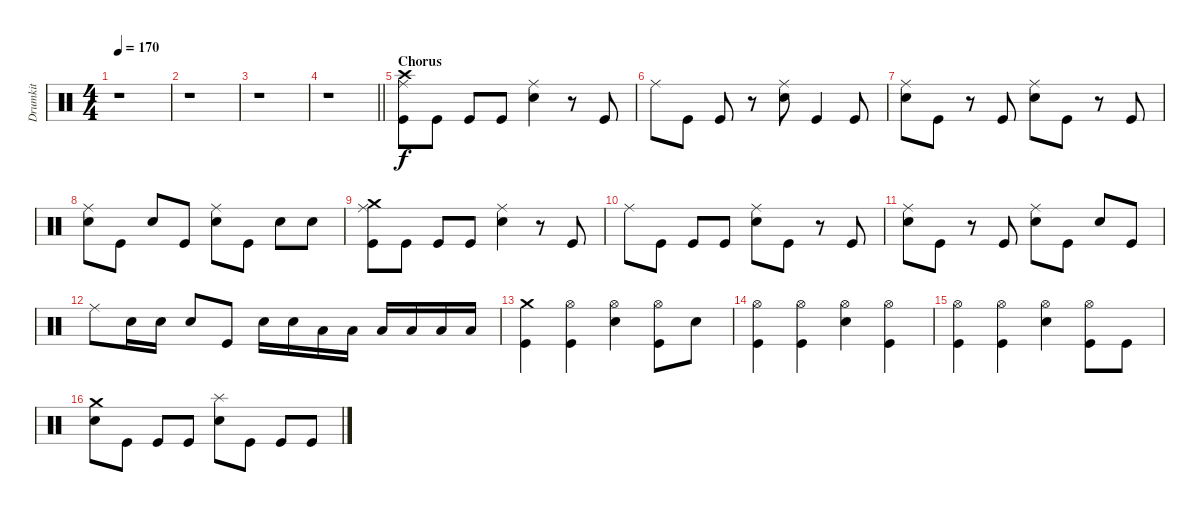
\track ("Drumkit" "Drumkit") {instrument percussion}
\staff {score}
\articulation defaults
\ts (4 4)
\tempo 170
\clef neutral
\ks c
r.1{dy f} |
r.1 |
r.1 |
\barLineRight lightlight
r.1 |
\section ("" "Chorus")
("Ride (middle)" "Crash high (hit)" "Kick (hit)").8 "Kick (hit)".8 "Kick (hit)".8 "Kick (hit)".8 ("Ride (middle)" "Snare (hit) 2").4 r.8 "Kick (hit)".8 |
"Ride (middle)".8 "Kick (hit)".8 "Kick (hit)".8 r.8 ("Ride (middle)" "Snare (hit) 2").8 "Kick (hit)".4 "Kick (hit)".8 |
("Ride (middle)" "Snare (hit) 2").8 "Kick (hit)".8 r.8 "Kick (hit)".8 ("Ride (middle)" "Snare (hit) 2").8 "Kick (hit)".8 r.8 "Kick (hit)".8 |
("Ride (middle)" "Snare (hit) 2").8 "Kick (hit)".8 "Snare (hit) 2".8 "Kick (hit)".8 ("Ride (middle)" "Snare (hit) 2").8 "Kick (hit)".8 "Snare (hit) 2".8 "Snare (hit) 2".8 |
("Ride (middle)" "Crash medium (hit)" "Kick (hit)").8 "Kick (hit)".8 "Kick (hit)".8 "Kick (hit)".8 ("Ride (middle)" "Snare (hit) 2").4 r.8 "Kick (hit)".8 |
"Ride (middle)".8 "Kick (hit)".8 "Kick (hit)".8 "Kick (hit)".8 ("Ride (middle)" "Snare (hit) 2").8 "Kick (hit)".8 r.8 "Kick (hit)".8 |
("Ride (middle)" "Snare (hit) 2").8 "Kick (hit)".8 r.8 "Kick (hit)".8 ("Ride (middle)" "Snare (hit) 2").8 "Kick (hit)".8 "Snare (hit) 2".8 "Kick (hit)".8 |
"Ride (middle)".8 "Snare (hit) 2".16 "Snare (hit) 2".16 "Snare (hit) 2".8 "Kick (hit)".8 "Snare (hit) 2".16 "Snare (hit) 2".16 "Low Tom (hit)".16 "Low Tom (hit)".16 "Low Tom (hit)".16 "Low Tom (hit)".16 "Low Floor Tom (hit)".16 "Low Floor Tom (hit)".16 |
("Crash medium (hit)" "Kick (hit)").4 ("Hi-Hat (open)" "Kick (hit)").4 ("Hi-Hat (open)" "Snare (hit) 2").4 ("Hi-Hat (open)" "Kick (hit)").8 "Snare (hit) 2".8 |
("Hi-Hat (open)" "Kick (hit)").4 ("Hi-Hat (open)" "Kick (hit)").4 ("Hi-Hat (open)" "Snare (hit) 2").4 ("Hi-Hat (open)" "Kick (hit)").4 |
("Hi-Hat (open)" "Kick (hit)").4 ("Hi-Hat (open)" "Kick (hit)").4 ("Hi-Hat (open)" "Snare (hit) 2").4 ("Hi-Hat (open)" "Kick (hit)").8 "Kick (hit)".8 |
("Crash medium (hit)" "Snare (hit) 2").8 "Kick (hit)".8 "Kick (hit)".8 "Kick (hit)".8 ("Splash (hit)" "Snare (hit) 2").8 "Kick (hit)".8 "Kick (hit)".8 "Kick (hit)".8
